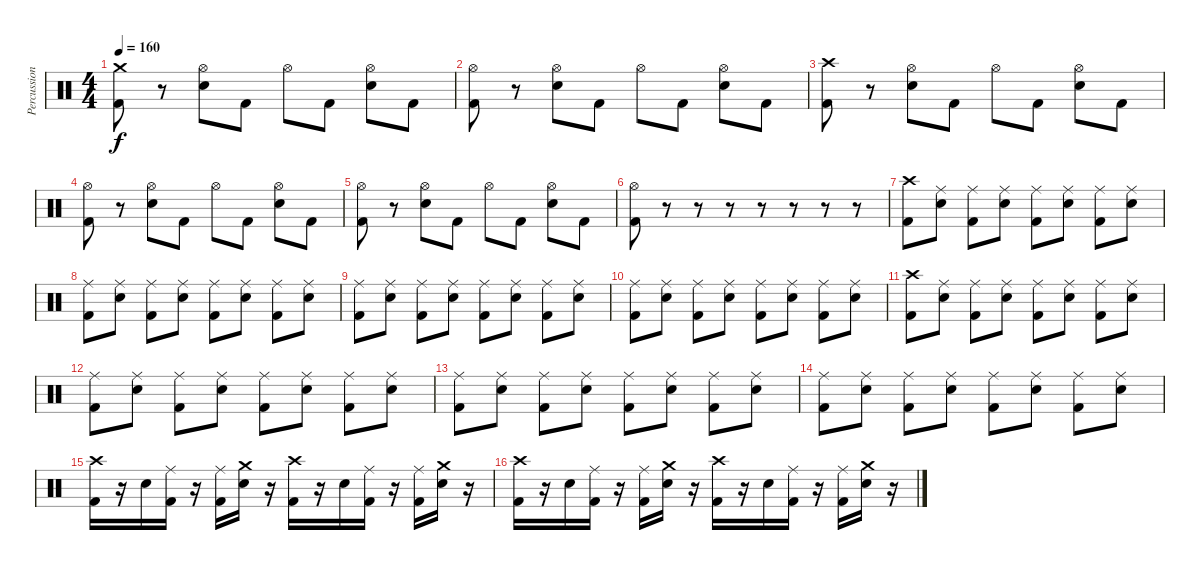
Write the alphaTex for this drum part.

\track ("Percussion" "Percussion") {instrument percussion}
\staff {score}
\articulation defaults
\ts (4 4)
\tempo 160
\clef neutral
\ks c
("Crash medium (hit)" "Kick (hit) 2").8{dy f} r.8 ("Hi-Hat (open)" "Electric Snare (hit)").8 "Kick (hit) 2".8 "Hi-Hat (open)".8 "Kick (hit) 2".8 ("Hi-Hat (open)" "Electric Snare (hit)").8 "Kick (hit) 2".8 |
("Hi-Hat (open)" "Kick (hit) 2").8 r.8 ("Hi-Hat (open)" "Electric Snare (hit)").8 "Kick (hit) 2".8 "Hi-Hat (open)".8 "Kick (hit) 2".8 ("Hi-Hat (open)" "Electric Snare (hit)").8 "Kick (hit) 2".8 |
("Crash high (hit)" "Kick (hit) 2").8 r.8 ("Hi-Hat (open)" "Electric Snare (hit)").8 "Kick (hit) 2".8 "Hi-Hat (open)".8 "Kick (hit) 2".8 ("Hi-Hat (open)" "Electric Snare (hit)").8 "Kick (hit) 2".8 |
("Hi-Hat (open)" "Kick (hit) 2").8 r.8 ("Hi-Hat (open)" "Electric Snare (hit)").8 "Kick (hit) 2".8 "Hi-Hat (open)".8 "Kick (hit) 2".8 ("Hi-Hat (open)" "Electric Snare (hit)").8 "Kick (hit) 2".8 |
("Hi-Hat (open)" "Kick (hit) 2").8 r.8 ("Hi-Hat (open)" "Electric Snare (hit)").8 "Kick (hit) 2".8 "Hi-Hat (open)".8 "Kick (hit) 2".8 ("Hi-Hat (open)" "Electric Snare (hit)").8 "Kick (hit) 2".8 |
("Hi-Hat (open)" "Kick (hit) 2").8 r.8 r.8 r.8 r.8 r.8 r.8 r.8 |
("Crash high (hit)" "Kick (hit) 2").8 ("Ride (middle)" "Electric Snare (hit)").8 ("Ride (middle)" "Kick (hit) 2").8 ("Ride (middle)" "Electric Snare (hit)").8 ("Ride (middle)" "Kick (hit) 2").8 ("Ride (middle)" "Electric Snare (hit)").8 ("Ride (middle)" "Kick (hit) 2").8 ("Ride (middle)" "Electric Snare (hit)").8 |
("Ride (middle)" "Kick (hit) 2").8 ("Ride (middle)" "Electric Snare (hit)").8 ("Ride (middle)" "Kick (hit) 2").8 ("Ride (middle)" "Electric Snare (hit)").8 ("Ride (middle)" "Kick (hit) 2").8 ("Ride (middle)" "Electric Snare (hit)").8 ("Ride (middle)" "Kick (hit) 2").8 ("Ride (middle)" "Electric Snare (hit)").8 |
("Ride (middle)" "Kick (hit) 2").8 ("Ride (middle)" "Electric Snare (hit)").8 ("Ride (middle)" "Kick (hit) 2").8 ("Ride (middle)" "Electric Snare (hit)").8 ("Ride (middle)" "Kick (hit) 2").8 ("Ride (middle)" "Electric Snare (hit)").8 ("Ride (middle)" "Kick (hit) 2").8 ("Ride (middle)" "Electric Snare (hit)").8 |
("Ride (middle)" "Kick (hit) 2").8 ("Ride (middle)" "Electric Snare (hit)").8 ("Ride (middle)" "Kick (hit) 2").8 ("Ride (middle)" "Electric Snare (hit)").8 ("Ride (middle)" "Kick (hit) 2").8 ("Ride (middle)" "Electric Snare (hit)").8 ("Ride (middle)" "Kick (hit) 2").8 ("Ride (middle)" "Electric Snare (hit)").8 |
("Crash high (hit)" "Kick (hit) 2").8 ("Ride (middle)" "Electric Snare (hit)").8 ("Ride (middle)" "Kick (hit) 2").8 ("Ride (middle)" "Electric Snare (hit)").8 ("Ride (middle)" "Kick (hit) 2").8 ("Ride (middle)" "Electric Snare (hit)").8 ("Ride (middle)" "Kick (hit) 2").8 ("Ride (middle)" "Electric Snare (hit)").8 |
("Ride (middle)" "Kick (hit) 2").8 ("Ride (middle)" "Electric Snare (hit)").8 ("Ride (middle)" "Kick (hit) 2").8 ("Ride (middle)" "Electric Snare (hit)").8 ("Ride (middle)" "Kick (hit) 2").8 ("Ride (middle)" "Electric Snare (hit)").8 ("Ride (middle)" "Kick (hit) 2").8 ("Ride (middle)" "Electric Snare (hit)").8 |
("Ride (middle)" "Kick (hit) 2").8 ("Ride (middle)" "Electric Snare (hit)").8 ("Ride (middle)" "Kick (hit) 2").8 ("Ride (middle)" "Electric Snare (hit)").8 ("Ride (middle)" "Kick (hit) 2").8 ("Ride (middle)" "Electric Snare (hit)").8 ("Ride (middle)" "Kick (hit) 2").8 ("Ride (middle)" "Electric Snare (hit)").8 |
("Ride (middle)" "Kick (hit) 2").8 ("Ride (middle)" "Electric Snare (hit)").8 ("Ride (middle)" "Kick (hit) 2").8 ("Ride (middle)" "Electric Snare (hit)").8 ("Ride (middle)" "Kick (hit) 2").8 ("Ride (middle)" "Electric Snare (hit)").8 ("Ride (middle)" "Kick (hit) 2").8 ("Ride (middle)" "Electric Snare (hit)").8 |
("Crash high (hit)" "Kick (hit) 2").16 r.16 "Electric Snare (hit)".16 ("Ride (middle)" "Kick (hit) 2").16 r.16 ("Ride (middle)" "Kick (hit) 2").16 ("Crash medium (hit)" "Electric Snare (hit)").16 r.16 ("Crash high (hit)" "Kick (hit) 2").16 r.16 "Electric Snare (hit)".16 ("Ride (middle)" "Kick (hit) 2").16 r.16 ("Ride (middle)" "Kick (hit) 2").16 ("Crash medium (hit)" "Electric Snare (hit)").16 r.16 |
("Crash high (hit)" "Kick (hit) 2").16 r.16 "Electric Snare (hit)".16 ("Ride (middle)" "Kick (hit) 2").16 r.16 ("Ride (middle)" "Kick (hit) 2").16 ("Crash medium (hit)" "Electric Snare (hit)").16 r.16 ("Crash high (hit)" "Kick (hit) 2").16 r.16 "Electric Snare (hit)".16 ("Ride (middle)" "Kick (hit) 2").16 r.16 ("Ride (middle)" "Kick (hit) 2").16 ("Crash medium (hit)" "Electric Snare (hit)").16 r.16
